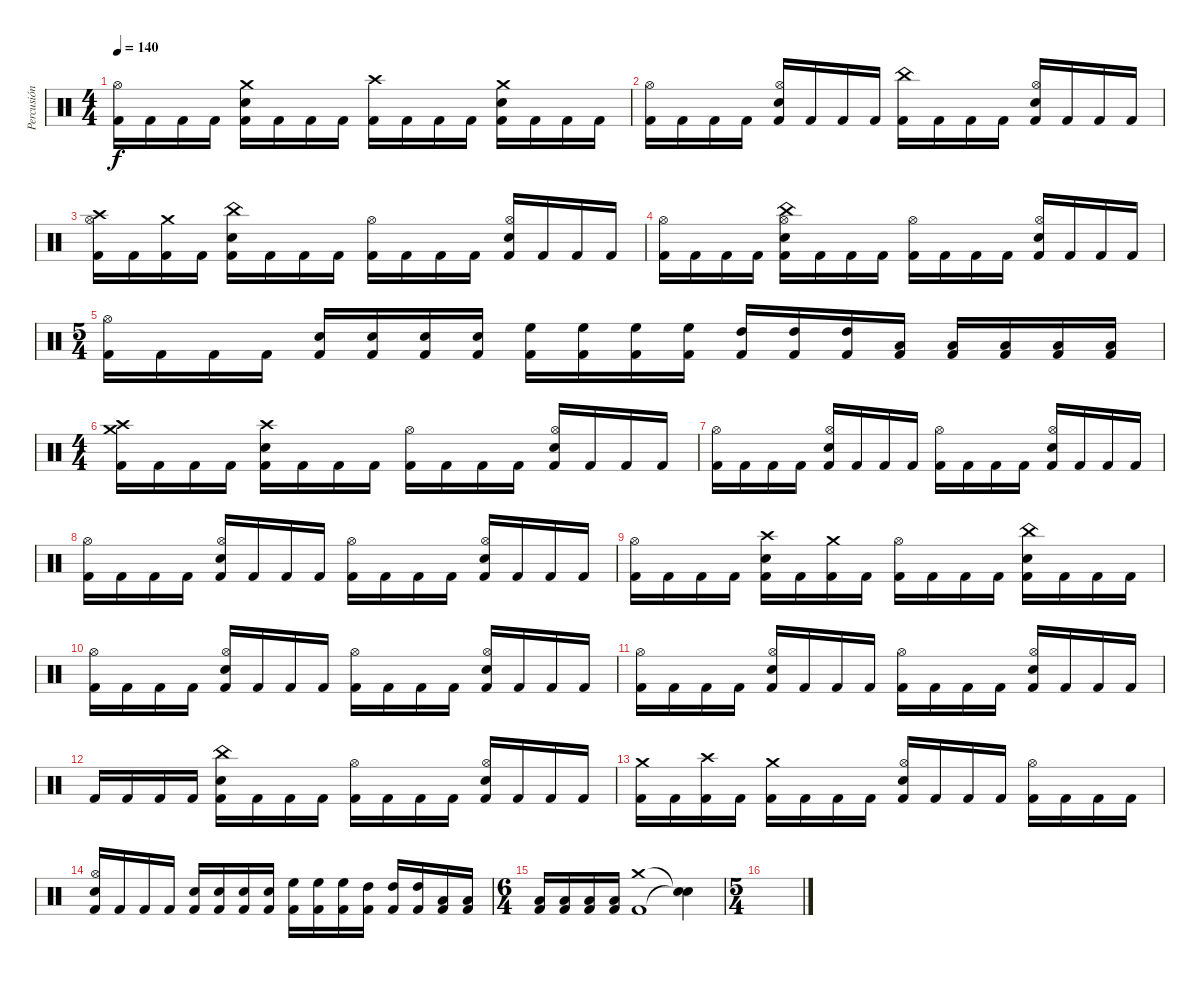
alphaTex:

\track ("Percusión" "Percusión") {instrument percussion}
\staff {score}
\articulation defaults
\ts (4 4)
\tempo 140
\clef neutral
\ks c
("Kick (hit) 2" "Hi-Hat (open)").16{dy f} "Kick (hit) 2".16 "Kick (hit) 2".16 "Kick (hit) 2".16 ("Kick (hit) 2" "Electric Snare (hit)" "Crash medium (hit)").16 "Kick (hit) 2".16 "Kick (hit) 2".16 "Kick (hit) 2".16 ("Kick (hit) 2" "Crash high (hit)").16 "Kick (hit) 2".16 "Kick (hit) 2".16 "Kick (hit) 2".16 ("Kick (hit) 2" "Electric Snare (hit)" "Crash medium (hit)").16 "Kick (hit) 2".16 "Kick (hit) 2".16 "Kick (hit) 2".16 |
("Kick (hit) 2" "Hi-Hat (open)").16 "Kick (hit) 2".16 "Kick (hit) 2".16 "Kick (hit) 2".16 ("Kick (hit) 2" "Electric Snare (hit)" "Hi-Hat (open)").16 "Kick (hit) 2".16 "Kick (hit) 2".16 "Kick (hit) 2".16 ("Kick (hit) 2" "China (hit)").16 "Kick (hit) 2".16 "Kick (hit) 2".16 "Kick (hit) 2".16 ("Kick (hit) 2" "Electric Snare (hit)" "Hi-Hat (open)").16 "Kick (hit) 2".16 "Kick (hit) 2".16 "Kick (hit) 2".16 |
("Kick (hit) 2" "Hi-Hat (open)" "Crash high (hit)").16 "Kick (hit) 2".16 ("Kick (hit) 2" "Crash medium (hit)").16 "Kick (hit) 2".16 ("Kick (hit) 2" "Electric Snare (hit)" "China (hit)").16 "Kick (hit) 2".16 "Kick (hit) 2".16 "Kick (hit) 2".16 ("Kick (hit) 2" "Hi-Hat (open)").16 "Kick (hit) 2".16 "Kick (hit) 2".16 "Kick (hit) 2".16 ("Kick (hit) 2" "Electric Snare (hit)" "Hi-Hat (open)").16 "Kick (hit) 2".16 "Kick (hit) 2".16 "Kick (hit) 2".16 |
("Kick (hit) 2" "Hi-Hat (open)").16 "Kick (hit) 2".16 "Kick (hit) 2".16 "Kick (hit) 2".16 ("Kick (hit) 2" "Electric Snare (hit)" "Hi-Hat (open)" "China (hit)").16 "Kick (hit) 2".16 "Kick (hit) 2".16 "Kick (hit) 2".16 ("Kick (hit) 2" "Hi-Hat (open)").16 "Kick (hit) 2".16 "Kick (hit) 2".16 "Kick (hit) 2".16 ("Kick (hit) 2" "Electric Snare (hit)" "Hi-Hat (open)").16 "Kick (hit) 2".16 "Kick (hit) 2".16 "Kick (hit) 2".16 |
\ts (5 4)
("Kick (hit) 2" "Hi-Hat (open)").16 "Kick (hit) 2".16 "Kick (hit) 2".16 "Kick (hit) 2".16 ("Kick (hit) 2" "Electric Snare (hit)").16 ("Kick (hit) 2" "Electric Snare (hit)").16 ("Kick (hit) 2" "Electric Snare (hit)").16 ("Kick (hit) 2" "Electric Snare (hit)").16 ("Kick (hit) 2" "High Floor Tom (hit)").16 ("Kick (hit) 2" "High Floor Tom (hit)").16 ("Kick (hit) 2" "High Floor Tom (hit)").16 ("Kick (hit) 2" "High Floor Tom (hit)").16 ("Kick (hit) 2" "High Tom (hit)").16 ("Kick (hit) 2" "High Tom (hit)").16 ("Kick (hit) 2" "High Tom (hit)").16 ("Kick (hit) 2" "Low Tom (hit)").16 ("Kick (hit) 2" "Low Tom (hit)").16 ("Kick (hit) 2" "Low Tom (hit)").16 ("Kick (hit) 2" "Low Tom (hit)").16 ("Kick (hit) 2" "Low Tom (hit)").16 |
\ts (4 4)
("Kick (hit) 2" "Crash high (hit)" "Crash medium (hit)").16 "Kick (hit) 2".16 "Kick (hit) 2".16 "Kick (hit) 2".16 ("Kick (hit) 2" "Electric Snare (hit)" "Crash high (hit)").16 "Kick (hit) 2".16 "Kick (hit) 2".16 "Kick (hit) 2".16 ("Kick (hit) 2" "Hi-Hat (open)").16 "Kick (hit) 2".16 "Kick (hit) 2".16 "Kick (hit) 2".16 ("Kick (hit) 2" "Electric Snare (hit)" "Hi-Hat (open)").16 "Kick (hit) 2".16 "Kick (hit) 2".16 "Kick (hit) 2".16 |
("Kick (hit) 2" "Hi-Hat (open)").16 "Kick (hit) 2".16 "Kick (hit) 2".16 "Kick (hit) 2".16 ("Kick (hit) 2" "Electric Snare (hit)" "Hi-Hat (open)").16 "Kick (hit) 2".16 "Kick (hit) 2".16 "Kick (hit) 2".16 ("Kick (hit) 2" "Hi-Hat (open)").16 "Kick (hit) 2".16 "Kick (hit) 2".16 "Kick (hit) 2".16 ("Kick (hit) 2" "Electric Snare (hit)" "Hi-Hat (open)").16 "Kick (hit) 2".16 "Kick (hit) 2".16 "Kick (hit) 2".16 |
("Kick (hit) 2" "Hi-Hat (open)").16 "Kick (hit) 2".16 "Kick (hit) 2".16 "Kick (hit) 2".16 ("Kick (hit) 2" "Electric Snare (hit)" "Hi-Hat (open)").16 "Kick (hit) 2".16 "Kick (hit) 2".16 "Kick (hit) 2".16 ("Kick (hit) 2" "Hi-Hat (open)").16 "Kick (hit) 2".16 "Kick (hit) 2".16 "Kick (hit) 2".16 ("Kick (hit) 2" "Electric Snare (hit)" "Hi-Hat (open)").16 "Kick (hit) 2".16 "Kick (hit) 2".16 "Kick (hit) 2".16 |
("Kick (hit) 2" "Hi-Hat (open)").16 "Kick (hit) 2".16 "Kick (hit) 2".16 "Kick (hit) 2".16 ("Kick (hit) 2" "Electric Snare (hit)" "Crash high (hit)").16 "Kick (hit) 2".16 ("Kick (hit) 2" "Crash medium (hit)").16 "Kick (hit) 2".16 ("Kick (hit) 2" "Hi-Hat (open)").16 "Kick (hit) 2".16 "Kick (hit) 2".16 "Kick (hit) 2".16 ("Kick (hit) 2" "Electric Snare (hit)" "China (hit)").16 "Kick (hit) 2".16 "Kick (hit) 2".16 "Kick (hit) 2".16 |
("Kick (hit) 2" "Hi-Hat (open)").16 "Kick (hit) 2".16 "Kick (hit) 2".16 "Kick (hit) 2".16 ("Kick (hit) 2" "Electric Snare (hit)" "Hi-Hat (open)").16 "Kick (hit) 2".16 "Kick (hit) 2".16 "Kick (hit) 2".16 ("Kick (hit) 2" "Hi-Hat (open)").16 "Kick (hit) 2".16 "Kick (hit) 2".16 "Kick (hit) 2".16 ("Kick (hit) 2" "Electric Snare (hit)" "Hi-Hat (open)").16 "Kick (hit) 2".16 "Kick (hit) 2".16 "Kick (hit) 2".16 |
("Kick (hit) 2" "Hi-Hat (open)").16 "Kick (hit) 2".16 "Kick (hit) 2".16 "Kick (hit) 2".16 ("Kick (hit) 2" "Electric Snare (hit)" "Hi-Hat (open)").16 "Kick (hit) 2".16 "Kick (hit) 2".16 "Kick (hit) 2".16 ("Kick (hit) 2" "Hi-Hat (open)").16 "Kick (hit) 2".16 "Kick (hit) 2".16 "Kick (hit) 2".16 ("Kick (hit) 2" "Electric Snare (hit)" "Hi-Hat (open)").16 "Kick (hit) 2".16 "Kick (hit) 2".16 "Kick (hit) 2".16 |
"Kick (hit) 2".16 "Kick (hit) 2".16 "Kick (hit) 2".16 "Kick (hit) 2".16 ("Kick (hit) 2" "Electric Snare (hit)" "China (hit)").16 "Kick (hit) 2".16 "Kick (hit) 2".16 "Kick (hit) 2".16 ("Kick (hit) 2" "Hi-Hat (open)").16 "Kick (hit) 2".16 "Kick (hit) 2".16 "Kick (hit) 2".16 ("Kick (hit) 2" "Electric Snare (hit)" "Hi-Hat (open)").16 "Kick (hit) 2".16 "Kick (hit) 2".16 "Kick (hit) 2".16 |
("Kick (hit) 2" "Crash medium (hit)").16 "Kick (hit) 2".16 ("Kick (hit) 2" "Crash high (hit)").16 "Kick (hit) 2".16 ("Kick (hit) 2" "Crash medium (hit)").16 "Kick (hit) 2".16 "Kick (hit) 2".16 "Kick (hit) 2".16 ("Kick (hit) 2" "Electric Snare (hit)" "Hi-Hat (open)").16 "Kick (hit) 2".16 "Kick (hit) 2".16 "Kick (hit) 2".16 ("Kick (hit) 2" "Hi-Hat (open)").16 "Kick (hit) 2".16 "Kick (hit) 2".16 "Kick (hit) 2".16 |
("Kick (hit) 2" "Electric Snare (hit)" "Hi-Hat (open)").16 "Kick (hit) 2".16 "Kick (hit) 2".16 "Kick (hit) 2".16 ("Kick (hit) 2" "Electric Snare (hit)").16 ("Kick (hit) 2" "Electric Snare (hit)").16 ("Kick (hit) 2" "Electric Snare (hit)").16 ("Kick (hit) 2" "Electric Snare (hit)").16 ("Kick (hit) 2" "High Floor Tom (hit)").16 ("Kick (hit) 2" "High Floor Tom (hit)").16 ("Kick (hit) 2" "High Floor Tom (hit)").16 ("Kick (hit) 2" "High Tom (hit)").16 ("Kick (hit) 2" "High Tom (hit)").16 ("Kick (hit) 2" "High Tom (hit)").16 ("Kick (hit) 2" "Low Tom (hit)").16 ("Kick (hit) 2" "Low Tom (hit)").16 |
\ts (6 4)
("Kick (hit) 2" "Low Tom (hit)").16 ("Kick (hit) 2" "Low Tom (hit)").16 ("Kick (hit) 2" "Low Tom (hit)").16 ("Kick (hit) 2" "Low Tom (hit)").16 ("Kick (hit) 2" "Crash medium (hit)").1 ("Snare (hit)"{t} "Snare (hit)"{t}).4 |
\ts (5 4)
